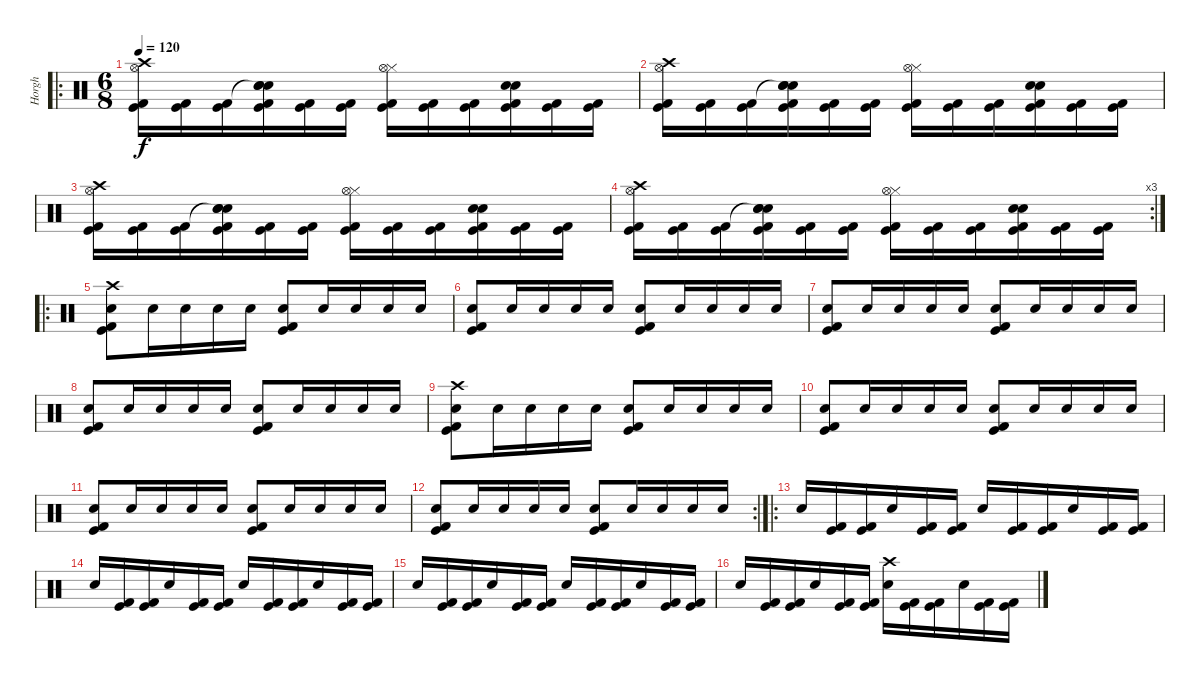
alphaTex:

\track ("Horgh" "Horgh") {instrument percussion}
\staff {score}
\articulation defaults
\ro
\ts (6 8)
\tempo 120
\clef neutral
\ks c
("Crash high (hit)" "Hi-Hat (open)" "Kick (hit) 2" "Kick (hit)").16{dy f} ("Kick (hit) 2" "Kick (hit)").16 ("Kick (hit) 2" "Kick (hit)").16 ("Snare (hit)"{t} "Snare (hit) 2" "Electric Snare (hit)" "Kick (hit) 2" "Kick (hit)").16 ("Kick (hit) 2" "Kick (hit)").16 ("Kick (hit) 2" "Kick (hit)").16 ("Hi-Hat (closed)" "Hi-Hat (open)" "Kick (hit) 2" "Kick (hit)").16 ("Kick (hit) 2" "Kick (hit)").16 ("Kick (hit) 2" "Kick (hit)").16 ("Snare (hit) 2" "Electric Snare (hit)" "Kick (hit) 2" "Kick (hit)").16 ("Kick (hit) 2" "Kick (hit)").16 ("Kick (hit) 2" "Kick (hit)").16 |
("Crash high (hit)" "Hi-Hat (open)" "Kick (hit) 2" "Kick (hit)").16 ("Kick (hit) 2" "Kick (hit)").16 ("Kick (hit) 2" "Kick (hit)").16 ("Snare (hit)"{t} "Snare (hit) 2" "Electric Snare (hit)" "Kick (hit) 2" "Kick (hit)").16 ("Kick (hit) 2" "Kick (hit)").16 ("Kick (hit) 2" "Kick (hit)").16 ("Hi-Hat (closed)" "Hi-Hat (open)" "Kick (hit) 2" "Kick (hit)").16 ("Kick (hit) 2" "Kick (hit)").16 ("Kick (hit) 2" "Kick (hit)").16 ("Snare (hit) 2" "Electric Snare (hit)" "Kick (hit) 2" "Kick (hit)").16 ("Kick (hit) 2" "Kick (hit)").16 ("Kick (hit) 2" "Kick (hit)").16 |
("Crash high (hit)" "Hi-Hat (open)" "Kick (hit) 2" "Kick (hit)").16 ("Kick (hit) 2" "Kick (hit)").16 ("Kick (hit) 2" "Kick (hit)").16 ("Snare (hit)"{t} "Snare (hit) 2" "Electric Snare (hit)" "Kick (hit) 2" "Kick (hit)").16 ("Kick (hit) 2" "Kick (hit)").16 ("Kick (hit) 2" "Kick (hit)").16 ("Hi-Hat (closed)" "Hi-Hat (open)" "Kick (hit) 2" "Kick (hit)").16 ("Kick (hit) 2" "Kick (hit)").16 ("Kick (hit) 2" "Kick (hit)").16 ("Snare (hit) 2" "Electric Snare (hit)" "Kick (hit) 2" "Kick (hit)").16 ("Kick (hit) 2" "Kick (hit)").16 ("Kick (hit) 2" "Kick (hit)").16 |
\rc 3
("Crash high (hit)" "Hi-Hat (open)" "Kick (hit) 2" "Kick (hit)").16 ("Kick (hit) 2" "Kick (hit)").16 ("Kick (hit) 2" "Kick (hit)").16 ("Snare (hit)"{t} "Snare (hit) 2" "Electric Snare (hit)" "Kick (hit) 2" "Kick (hit)").16 ("Kick (hit) 2" "Kick (hit)").16 ("Kick (hit) 2" "Kick (hit)").16 ("Hi-Hat (closed)" "Hi-Hat (open)" "Kick (hit) 2" "Kick (hit)").16 ("Kick (hit) 2" "Kick (hit)").16 ("Kick (hit) 2" "Kick (hit)").16 ("Snare (hit) 2" "Electric Snare (hit)" "Kick (hit) 2" "Kick (hit)").16 ("Kick (hit) 2" "Kick (hit)").16 ("Kick (hit) 2" "Kick (hit)").16 |
\ro
("Crash high (hit)" "Electric Snare (hit)" "Kick (hit) 2" "Kick (hit)").8 "Electric Snare (hit)".16 "Electric Snare (hit)".16 "Electric Snare (hit)".16 "Electric Snare (hit)".16 ("Electric Snare (hit)" "Kick (hit) 2" "Kick (hit)").8 "Electric Snare (hit)".16 "Electric Snare (hit)".16 "Electric Snare (hit)".16 "Electric Snare (hit)".16 |
("Electric Snare (hit)" "Kick (hit) 2" "Kick (hit)").8 "Electric Snare (hit)".16 "Electric Snare (hit)".16 "Electric Snare (hit)".16 "Electric Snare (hit)".16 ("Electric Snare (hit)" "Kick (hit) 2" "Kick (hit)").8 "Electric Snare (hit)".16 "Electric Snare (hit)".16 "Electric Snare (hit)".16 "Electric Snare (hit)".16 |
("Electric Snare (hit)" "Kick (hit) 2" "Kick (hit)").8 "Electric Snare (hit)".16 "Electric Snare (hit)".16 "Electric Snare (hit)".16 "Electric Snare (hit)".16 ("Electric Snare (hit)" "Kick (hit) 2" "Kick (hit)").8 "Electric Snare (hit)".16 "Electric Snare (hit)".16 "Electric Snare (hit)".16 "Electric Snare (hit)".16 |
("Electric Snare (hit)" "Kick (hit) 2" "Kick (hit)").8 "Electric Snare (hit)".16 "Electric Snare (hit)".16 "Electric Snare (hit)".16 "Electric Snare (hit)".16 ("Electric Snare (hit)" "Kick (hit) 2" "Kick (hit)").8 "Electric Snare (hit)".16 "Electric Snare (hit)".16 "Electric Snare (hit)".16 "Electric Snare (hit)".16 |
("Crash high (hit)" "Electric Snare (hit)" "Kick (hit) 2" "Kick (hit)").8 "Electric Snare (hit)".16 "Electric Snare (hit)".16 "Electric Snare (hit)".16 "Electric Snare (hit)".16 ("Electric Snare (hit)" "Kick (hit) 2" "Kick (hit)").8 "Electric Snare (hit)".16 "Electric Snare (hit)".16 "Electric Snare (hit)".16 "Electric Snare (hit)".16 |
("Electric Snare (hit)" "Kick (hit) 2" "Kick (hit)").8 "Electric Snare (hit)".16 "Electric Snare (hit)".16 "Electric Snare (hit)".16 "Electric Snare (hit)".16 ("Electric Snare (hit)" "Kick (hit) 2" "Kick (hit)").8 "Electric Snare (hit)".16 "Electric Snare (hit)".16 "Electric Snare (hit)".16 "Electric Snare (hit)".16 |
("Electric Snare (hit)" "Kick (hit) 2" "Kick (hit)").8 "Electric Snare (hit)".16 "Electric Snare (hit)".16 "Electric Snare (hit)".16 "Electric Snare (hit)".16 ("Electric Snare (hit)" "Kick (hit) 2" "Kick (hit)").8 "Electric Snare (hit)".16 "Electric Snare (hit)".16 "Electric Snare (hit)".16 "Electric Snare (hit)".16 |
\rc 2
("Electric Snare (hit)" "Kick (hit) 2" "Kick (hit)").8 "Electric Snare (hit)".16 "Electric Snare (hit)".16 "Electric Snare (hit)".16 "Electric Snare (hit)".16 ("Electric Snare (hit)" "Kick (hit) 2" "Kick (hit)").8 "Electric Snare (hit)".16 "Electric Snare (hit)".16 "Electric Snare (hit)".16 "Electric Snare (hit)".16 |
\ro "Electric Snare (hit)".16
("Kick (hit) 2" "Kick (hit)").16 ("Kick (hit) 2" "Kick (hit)").16 "Electric Snare (hit)".16 ("Kick (hit) 2" "Kick (hit)").16 ("Kick (hit) 2" "Kick (hit)").16 "Electric Snare (hit)".16 ("Kick (hit) 2" "Kick (hit)").16 ("Kick (hit) 2" "Kick (hit)").16 "Electric Snare (hit)".16 ("Kick (hit) 2" "Kick (hit)").16 ("Kick (hit) 2" "Kick (hit)").16 |
"Electric Snare (hit)".16 ("Kick (hit) 2" "Kick (hit)").16 ("Kick (hit) 2" "Kick (hit)").16 "Electric Snare (hit)".16 ("Kick (hit) 2" "Kick (hit)").16 ("Kick (hit) 2" "Kick (hit)").16 "Electric Snare (hit)".16 ("Kick (hit) 2" "Kick (hit)").16 ("Kick (hit) 2" "Kick (hit)").16 "Electric Snare (hit)".16 ("Kick (hit) 2" "Kick (hit)").16 ("Kick (hit) 2" "Kick (hit)").16 |
"Electric Snare (hit)".16 ("Kick (hit) 2" "Kick (hit)").16 ("Kick (hit) 2" "Kick (hit)").16 "Electric Snare (hit)".16 ("Kick (hit) 2" "Kick (hit)").16 ("Kick (hit) 2" "Kick (hit)").16 "Electric Snare (hit)".16 ("Kick (hit) 2" "Kick (hit)").16 ("Kick (hit) 2" "Kick (hit)").16 "Electric Snare (hit)".16 ("Kick (hit) 2" "Kick (hit)").16 ("Kick (hit) 2" "Kick (hit)").16 |
"Electric Snare (hit)".16 ("Kick (hit) 2" "Kick (hit)").16 ("Kick (hit) 2" "Kick (hit)").16 "Electric Snare (hit)".16 ("Kick (hit) 2" "Kick (hit)").16 ("Kick (hit) 2" "Kick (hit)").16 ("Crash high (hit)" "Electric Snare (hit)").16 ("Kick (hit) 2" "Kick (hit)").16 ("Kick (hit) 2" "Kick (hit)").16 "Electric Snare (hit)".16 ("Kick (hit) 2" "Kick (hit)").16 ("Kick (hit) 2" "Kick (hit)").16
